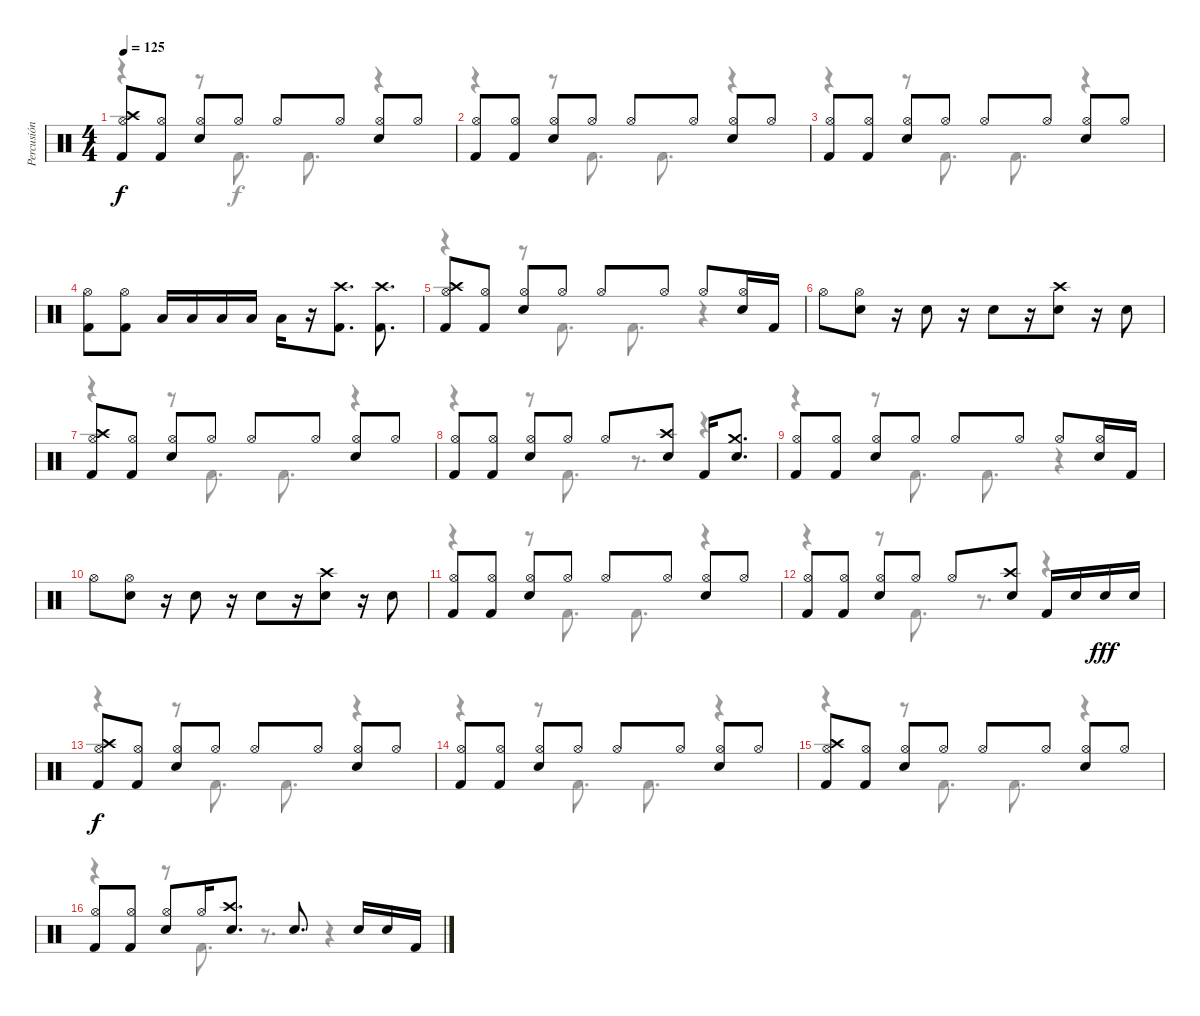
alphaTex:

\track ("Percusión" "Percusión") {instrument percussion}
\staff {score}
\articulation defaults
\voice
\ts (4 4)
\tempo 125
\clef neutral
\ks c
("Hi-Hat (open)" "Kick (hit) 2" "Crash high (hit)").8{dy f} ("Hi-Hat (open)" "Kick (hit) 2").8 ("Hi-Hat (open)" "Electric Snare (hit)").8 "Hi-Hat (open)".8 "Hi-Hat (open)".8 "Hi-Hat (open)".8 ("Hi-Hat (open)" "Electric Snare (hit)").8 "Hi-Hat (open)".8 |
("Hi-Hat (open)" "Kick (hit) 2").8 ("Hi-Hat (open)" "Kick (hit) 2").8 ("Hi-Hat (open)" "Electric Snare (hit)").8 "Hi-Hat (open)".8 "Hi-Hat (open)".8 "Hi-Hat (open)".8 ("Hi-Hat (open)" "Electric Snare (hit)").8 "Hi-Hat (open)".8 |
("Hi-Hat (open)" "Kick (hit) 2").8 ("Hi-Hat (open)" "Kick (hit) 2").8 ("Hi-Hat (open)" "Electric Snare (hit)").8 "Hi-Hat (open)".8 "Hi-Hat (open)".8 "Hi-Hat (open)".8 ("Hi-Hat (open)" "Electric Snare (hit)").8 "Hi-Hat (open)".8 |
("Hi-Hat (open)" "Kick (hit) 2").8 ("Hi-Hat (open)" "Kick (hit) 2").8 "Low Tom (hit)".16 "Low Tom (hit)".16 "Low Floor Tom (hit)".16 "Low Tom (hit)".16 "Low Tom (hit)".16 r.16 ("Crash high (hit)" "Kick (hit) 2").8{d} ("Crash high (hit)" "Kick (hit) 2").8{d} |
("Hi-Hat (open)" "Kick (hit) 2" "Crash high (hit)").8 ("Hi-Hat (open)" "Kick (hit) 2").8 ("Hi-Hat (open)" "Electric Snare (hit)").8 "Hi-Hat (open)".8 "Hi-Hat (open)".8 "Hi-Hat (open)".8 "Hi-Hat (open)".8 ("Hi-Hat (open)" "Electric Snare (hit)").16 "Kick (hit) 2".16 |
"Hi-Hat (open)".8 ("Hi-Hat (open)" "Electric Snare (hit)").8 r.16 "Electric Snare (hit)".8 r.16 "Electric Snare (hit)".8 r.16 ("Crash high (hit)" "Electric Snare (hit)").8 r.16 "Electric Snare (hit)".8 |
("Hi-Hat (open)" "Kick (hit) 2" "Crash high (hit)").8 ("Hi-Hat (open)" "Kick (hit) 2").8 ("Hi-Hat (open)" "Electric Snare (hit)").8 "Hi-Hat (open)".8 "Hi-Hat (open)".8 "Hi-Hat (open)".8 ("Hi-Hat (open)" "Electric Snare (hit)").8 "Hi-Hat (open)".8 |
("Hi-Hat (open)" "Kick (hit) 2").8 ("Hi-Hat (open)" "Kick (hit) 2").8 ("Hi-Hat (open)" "Electric Snare (hit)").8 "Hi-Hat (open)".8 "Hi-Hat (open)".8 ("Crash high (hit)" "Electric Snare (hit)").8 "Kick (hit) 2".16 ("Crash medium (hit)" "Electric Snare (hit)").8{d} |
("Hi-Hat (open)" "Kick (hit) 2").8 ("Hi-Hat (open)" "Kick (hit) 2").8 ("Hi-Hat (open)" "Electric Snare (hit)").8 "Hi-Hat (open)".8 "Hi-Hat (open)".8 "Hi-Hat (open)".8 "Hi-Hat (open)".8 ("Hi-Hat (open)" "Electric Snare (hit)").16 "Kick (hit) 2".16 |
"Hi-Hat (open)".8 ("Hi-Hat (open)" "Electric Snare (hit)").8 r.16 "Electric Snare (hit)".8 r.16 "Electric Snare (hit)".8 r.16 ("Crash high (hit)" "Electric Snare (hit)").8 r.16 "Electric Snare (hit)".8 |
("Hi-Hat (open)" "Kick (hit) 2").8 ("Hi-Hat (open)" "Kick (hit) 2").8 ("Hi-Hat (open)" "Electric Snare (hit)").8 "Hi-Hat (open)".8 "Hi-Hat (open)".8 "Hi-Hat (open)".8 ("Hi-Hat (open)" "Electric Snare (hit)").8 "Hi-Hat (open)".8 |
("Hi-Hat (open)" "Kick (hit) 2").8 ("Hi-Hat (open)" "Kick (hit) 2").8 ("Hi-Hat (open)" "Electric Snare (hit)").8 "Hi-Hat (open)".8 "Hi-Hat (open)".8 ("Crash high (hit)" "Electric Snare (hit)").8 "Kick (hit) 2".16 "Electric Snare (hit)".16 "Electric Snare (hit)".16{dy fff} "Electric Snare (hit)".16 |
("Hi-Hat (open)" "Kick (hit) 2" "Crash high (hit)").8{dy f} ("Hi-Hat (open)" "Kick (hit) 2").8 ("Hi-Hat (open)" "Electric Snare (hit)").8 "Hi-Hat (open)".8 "Hi-Hat (open)".8 "Hi-Hat (open)".8 ("Hi-Hat (open)" "Electric Snare (hit)").8 "Hi-Hat (open)".8 |
("Hi-Hat (open)" "Kick (hit) 2").8 ("Hi-Hat (open)" "Kick (hit) 2").8 ("Hi-Hat (open)" "Electric Snare (hit)").8 "Hi-Hat (open)".8 "Hi-Hat (open)".8 "Hi-Hat (open)".8 ("Hi-Hat (open)" "Electric Snare (hit)").8 "Hi-Hat (open)".8 |
("Hi-Hat (open)" "Kick (hit) 2" "Crash high (hit)").8 ("Hi-Hat (open)" "Kick (hit) 2").8 ("Hi-Hat (open)" "Electric Snare (hit)").8 "Hi-Hat (open)".8 "Hi-Hat (open)".8 "Hi-Hat (open)".8 ("Hi-Hat (open)" "Electric Snare (hit)").8 "Hi-Hat (open)".8 |
("Hi-Hat (open)" "Kick (hit) 2").8 ("Hi-Hat (open)" "Kick (hit) 2").8 ("Hi-Hat (open)" "Electric Snare (hit)").8 "Hi-Hat (open)".16 ("Crash high (hit)" "Electric Snare (hit)").8{d} "Electric Snare (hit)".8{d} "Electric Snare (hit)".16 "Electric Snare (hit)".16 "Kick (hit) 2".16
\voice
\clef neutral
\ottava regular
\simile none
\ks c
r.4{dy f} r.8 "Kick (hit) 2".8{d} "Kick (hit) 2".8{d} r.4 |
r.4 r.8 "Kick (hit) 2".8{d} "Kick (hit) 2".8{d} r.4 |
r.4 r.8 "Kick (hit) 2".8{d} "Kick (hit) 2".8{d} r.4 |
|
r.4 r.8 "Kick (hit) 2".8{d} "Kick (hit) 2".8{d} r.4 |
|
r.4 r.8 "Kick (hit) 2".8{d} "Kick (hit) 2".8{d} r.4 |
r.4 r.8 "Kick (hit) 2".8{d} r.8{d} r.4 |
r.4 r.8 "Kick (hit) 2".8{d} "Kick (hit) 2".8{d} r.4 |
|
r.4 r.8 "Kick (hit) 2".8{d} "Kick (hit) 2".8{d} r.4 |
r.4 r.8 "Kick (hit) 2".8{d} r.8{d} r.4 |
r.4 r.8 "Kick (hit) 2".8{d} "Kick (hit) 2".8{d} r.4 |
r.4 r.8 "Kick (hit) 2".8{d} "Kick (hit) 2".8{d} r.4 |
r.4 r.8 "Kick (hit) 2".8{d} "Kick (hit) 2".8{d} r.4 |
r.4 r.8 "Kick (hit) 2".8{d} r.8{d} r.4
